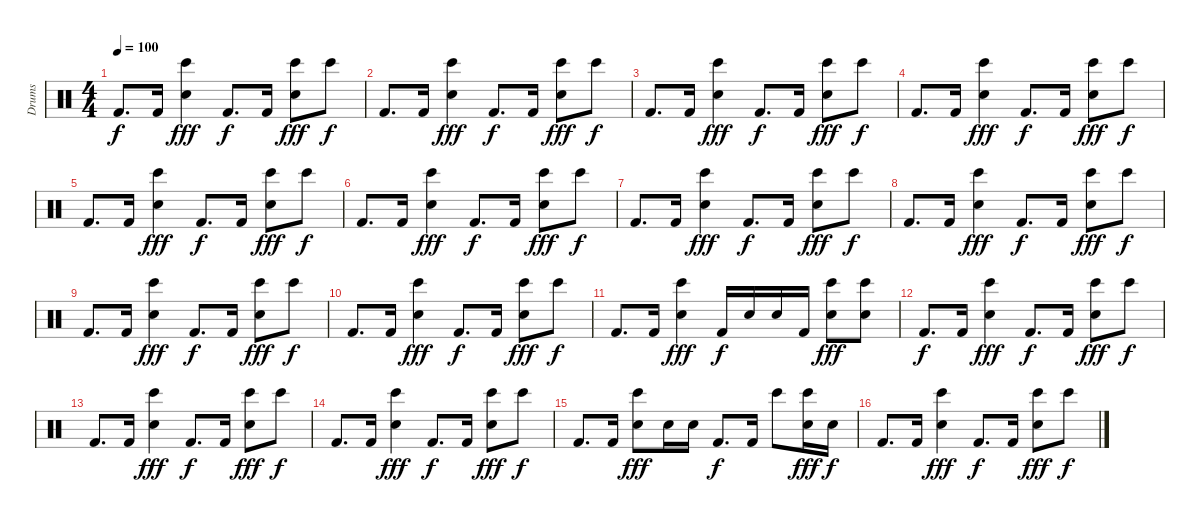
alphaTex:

\track ("Drums" "Drums") {instrument percussion}
\staff {score}
\articulation defaults
\ts (4 4)
\tempo 100
\clef neutral
\ks c "Kick (hit) 2".8{d dy f} "Kick (hit) 2".16
("Snare (hit) 2" "Bongo High (hit)").4{dy fff} "Kick (hit) 2".8{d dy f} "Kick (hit) 2".16 ("Snare (hit) 2" "Bongo High (hit)").8{dy fff} "Bongo High (hit)".8{dy f} |
"Kick (hit) 2".8{d} "Kick (hit) 2".16 ("Snare (hit) 2" "Bongo High (hit)").4{dy fff} "Kick (hit) 2".8{d dy f} "Kick (hit) 2".16 ("Snare (hit) 2" "Bongo High (hit)").8{dy fff} "Bongo High (hit)".8{dy f} |
"Kick (hit) 2".8{d} "Kick (hit) 2".16 ("Snare (hit) 2" "Bongo High (hit)").4{dy fff} "Kick (hit) 2".8{d dy f} "Kick (hit) 2".16 ("Snare (hit) 2" "Bongo High (hit)").8{dy fff} "Bongo High (hit)".8{dy f} |
"Kick (hit) 2".8{d} "Kick (hit) 2".16 ("Snare (hit) 2" "Bongo High (hit)").4{dy fff} "Kick (hit) 2".8{d dy f} "Kick (hit) 2".16 ("Snare (hit) 2" "Bongo High (hit)").8{dy fff} "Bongo High (hit)".8{dy f} |
"Kick (hit) 2".8{d} "Kick (hit) 2".16 ("Snare (hit) 2" "Bongo High (hit)").4{dy fff} "Kick (hit) 2".8{d dy f} "Kick (hit) 2".16 ("Snare (hit) 2" "Bongo High (hit)").8{dy fff} "Bongo High (hit)".8{dy f} |
"Kick (hit) 2".8{d} "Kick (hit) 2".16 ("Snare (hit) 2" "Bongo High (hit)").4{dy fff} "Kick (hit) 2".8{d dy f} "Kick (hit) 2".16 ("Snare (hit) 2" "Bongo High (hit)").8{dy fff} "Bongo High (hit)".8{dy f} |
"Kick (hit) 2".8{d} "Kick (hit) 2".16 ("Snare (hit) 2" "Bongo High (hit)").4{dy fff} "Kick (hit) 2".8{d dy f} "Kick (hit) 2".16 ("Snare (hit) 2" "Bongo High (hit)").8{dy fff} "Bongo High (hit)".8{dy f} |
"Kick (hit) 2".8{d} "Kick (hit) 2".16 ("Snare (hit) 2" "Bongo High (hit)").4{dy fff} "Kick (hit) 2".8{d dy f} "Kick (hit) 2".16 ("Snare (hit) 2" "Bongo High (hit)").8{dy fff} "Bongo High (hit)".8{dy f} |
"Kick (hit) 2".8{d} "Kick (hit) 2".16 ("Snare (hit) 2" "Bongo High (hit)").4{dy fff} "Kick (hit) 2".8{d dy f} "Kick (hit) 2".16 ("Snare (hit) 2" "Bongo High (hit)").8{dy fff} "Bongo High (hit)".8{dy f} |
"Kick (hit) 2".8{d} "Kick (hit) 2".16 ("Snare (hit) 2" "Bongo High (hit)").4{dy fff} "Kick (hit) 2".8{d dy f} "Kick (hit) 2".16 ("Snare (hit) 2" "Bongo High (hit)").8{dy fff} "Bongo High (hit)".8{dy f} |
"Kick (hit) 2".8{d} "Kick (hit) 2".16 ("Snare (hit) 2" "Bongo High (hit)").4{dy fff} "Kick (hit) 2".16{dy f} "Snare (hit) 2".16 "Snare (hit) 2".16 "Kick (hit) 2".16 ("Snare (hit) 2" "Bongo High (hit)").8{dy fff} ("Snare (hit) 2" "Bongo High (hit)").8 |
"Kick (hit) 2".8{d dy f} "Kick (hit) 2".16 ("Snare (hit) 2" "Bongo High (hit)").4{dy fff} "Kick (hit) 2".8{d dy f} "Kick (hit) 2".16 ("Snare (hit) 2" "Bongo High (hit)").8{dy fff} "Bongo High (hit)".8{dy f} |
"Kick (hit) 2".8{d} "Kick (hit) 2".16 ("Snare (hit) 2" "Bongo High (hit)").4{dy fff} "Kick (hit) 2".8{d dy f} "Kick (hit) 2".16 ("Snare (hit) 2" "Bongo High (hit)").8{dy fff} "Bongo High (hit)".8{dy f} |
"Kick (hit) 2".8{d} "Kick (hit) 2".16 ("Snare (hit) 2" "Bongo High (hit)").4{dy fff} "Kick (hit) 2".8{d dy f} "Kick (hit) 2".16 ("Snare (hit) 2" "Bongo High (hit)").8{dy fff} "Bongo High (hit)".8{dy f} |
"Kick (hit) 2".8{d} "Kick (hit) 2".16 ("Snare (hit) 2" "Bongo High (hit)").8{dy fff} "Snare (hit) 2".16 "Snare (hit) 2".16 "Kick (hit) 2".8{d dy f} "Kick (hit) 2".16 "Bongo High (hit)".8 ("Snare (hit) 2" "Bongo High (hit)").16{dy fff} "Snare (hit) 2".16{dy f} |
"Kick (hit) 2".8{d} "Kick (hit) 2".16 ("Snare (hit) 2" "Bongo High (hit)").4{dy fff} "Kick (hit) 2".8{d dy f} "Kick (hit) 2".16 ("Snare (hit) 2" "Bongo High (hit)").8{dy fff} "Bongo High (hit)".8{dy f}
